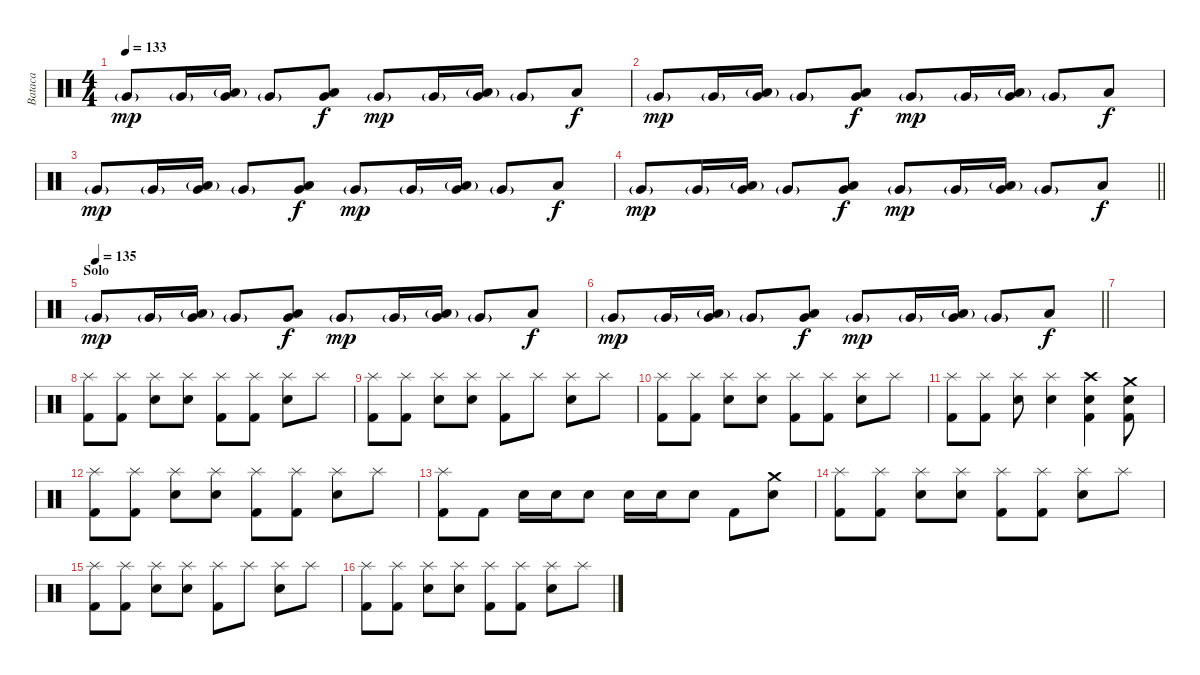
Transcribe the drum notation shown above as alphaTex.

\track ("Bataca" "Bataca") {instrument percussion}
\staff {score}
\articulation defaults
\ts (4 4)
\tempo 133
\clef neutral
\ks c "Very Low Tom (hit)"{g}.8{dy mp} "Very Low Tom (hit)"{g}.16
("Low Floor Tom (hit)"{g} "Very Low Tom (hit)").16 "Very Low Tom (hit)"{g}.8 ("Low Floor Tom (hit)" "Very Low Tom (hit)").8{dy f} "Very Low Tom (hit)"{g}.8{dy mp} "Very Low Tom (hit)"{g}.16 ("Low Floor Tom (hit)"{g} "Very Low Tom (hit)").16 "Very Low Tom (hit)"{g}.8 "Low Floor Tom (hit)".8{dy f} |
"Very Low Tom (hit)"{g}.8{dy mp} "Very Low Tom (hit)"{g}.16 ("Low Floor Tom (hit)"{g} "Very Low Tom (hit)").16 "Very Low Tom (hit)"{g}.8 ("Low Floor Tom (hit)" "Very Low Tom (hit)").8{dy f} "Very Low Tom (hit)"{g}.8{dy mp} "Very Low Tom (hit)"{g}.16 ("Low Floor Tom (hit)"{g} "Very Low Tom (hit)").16 "Very Low Tom (hit)"{g}.8 "Low Floor Tom (hit)".8{dy f} |
"Very Low Tom (hit)"{g}.8{dy mp} "Very Low Tom (hit)"{g}.16 ("Low Floor Tom (hit)"{g} "Very Low Tom (hit)").16 "Very Low Tom (hit)"{g}.8 ("Low Floor Tom (hit)" "Very Low Tom (hit)").8{dy f} "Very Low Tom (hit)"{g}.8{dy mp} "Very Low Tom (hit)"{g}.16 ("Low Floor Tom (hit)"{g} "Very Low Tom (hit)").16 "Very Low Tom (hit)"{g}.8 "Low Floor Tom (hit)".8{dy f} |
\barLineRight lightlight "Very Low Tom (hit)"{g}.8{dy mp} "Very Low Tom (hit)"{g}.16
("Low Floor Tom (hit)"{g} "Very Low Tom (hit)").16 "Very Low Tom (hit)"{g}.8 ("Low Floor Tom (hit)" "Very Low Tom (hit)").8{dy f} "Very Low Tom (hit)"{g}.8{dy mp} "Very Low Tom (hit)"{g}.16 ("Low Floor Tom (hit)"{g} "Very Low Tom (hit)").16 "Very Low Tom (hit)"{g}.8 "Low Floor Tom (hit)".8{dy f} |
\section ("" "Solo")
\tempo (135)
"Very Low Tom (hit)"{g}.8{dy mp} "Very Low Tom (hit)"{g}.16 ("Low Floor Tom (hit)"{g} "Very Low Tom (hit)").16 "Very Low Tom (hit)"{g}.8 ("Low Floor Tom (hit)" "Very Low Tom (hit)").8{dy f} "Very Low Tom (hit)"{g}.8{dy mp} "Very Low Tom (hit)"{g}.16 ("Low Floor Tom (hit)"{g} "Very Low Tom (hit)").16 "Very Low Tom (hit)"{g}.8 "Low Floor Tom (hit)".8{dy f} |
\barLineRight lightlight "Very Low Tom (hit)"{g}.8{dy mp} "Very Low Tom (hit)"{g}.16
("Low Floor Tom (hit)"{g} "Very Low Tom (hit)").16 "Very Low Tom (hit)"{g}.8 ("Low Floor Tom (hit)" "Very Low Tom (hit)").8{dy f} "Very Low Tom (hit)"{g}.8{dy mp} "Very Low Tom (hit)"{g}.16 ("Low Floor Tom (hit)"{g} "Very Low Tom (hit)").16 "Very Low Tom (hit)"{g}.8 "Low Floor Tom (hit)".8{dy f} |
|
("Splash (hit)" "Kick (hit) 2").8 ("Splash (hit)" "Kick (hit) 2").8 ("Splash (hit)" "Electric Snare (hit)").8 ("Splash (hit)" "Electric Snare (hit)").8 ("Splash (hit)" "Kick (hit) 2").8 ("Splash (hit)" "Kick (hit) 2").8 ("Splash (hit)" "Electric Snare (hit)").8 "Splash (hit)".8 |
("Splash (hit)" "Kick (hit) 2").8 ("Splash (hit)" "Kick (hit) 2").8 ("Splash (hit)" "Electric Snare (hit)").8 ("Splash (hit)" "Electric Snare (hit)").8 ("Splash (hit)" "Kick (hit) 2").8 "Splash (hit)".8 ("Splash (hit)" "Electric Snare (hit)").8 "Splash (hit)".8 |
("Splash (hit)" "Kick (hit) 2").8 ("Splash (hit)" "Kick (hit) 2").8 ("Splash (hit)" "Electric Snare (hit)").8 ("Splash (hit)" "Electric Snare (hit)").8 ("Splash (hit)" "Kick (hit) 2").8 ("Splash (hit)" "Kick (hit) 2").8 ("Splash (hit)" "Electric Snare (hit)").8 "Splash (hit)".8 |
("Splash (hit)" "Kick (hit) 2").8 ("Splash (hit)" "Kick (hit) 2").8 ("Splash (hit)" "Electric Snare (hit)").8 ("Splash (hit)" "Electric Snare (hit)").4 ("Crash high (hit)" "Electric Snare (hit)" "Kick (hit) 2").4 ("Crash medium (hit)" "Electric Snare (hit)" "Kick (hit) 2").8 |
("Splash (hit)" "Kick (hit) 2").8 ("Splash (hit)" "Kick (hit) 2").8 ("Splash (hit)" "Electric Snare (hit)").8 ("Splash (hit)" "Electric Snare (hit)").8 ("Splash (hit)" "Kick (hit) 2").8 ("Splash (hit)" "Kick (hit) 2").8 ("Splash (hit)" "Electric Snare (hit)").8 "Splash (hit)".8 |
("Splash (hit)" "Kick (hit) 2").8 "Kick (hit) 2".8 "Electric Snare (hit)".16 "Electric Snare (hit)".16 "Electric Snare (hit)".8 "Electric Snare (hit)".16 "Electric Snare (hit)".16 "Electric Snare (hit)".8 "Kick (hit) 2".8 ("Crash medium (hit)" "Electric Snare (hit)").8 |
("Splash (hit)" "Kick (hit) 2").8 ("Splash (hit)" "Kick (hit) 2").8 ("Splash (hit)" "Electric Snare (hit)").8 ("Splash (hit)" "Electric Snare (hit)").8 ("Splash (hit)" "Kick (hit) 2").8 ("Splash (hit)" "Kick (hit) 2").8 ("Splash (hit)" "Electric Snare (hit)").8 "Splash (hit)".8 |
("Splash (hit)" "Kick (hit) 2").8 ("Splash (hit)" "Kick (hit) 2").8 ("Splash (hit)" "Electric Snare (hit)").8 ("Splash (hit)" "Electric Snare (hit)").8 ("Splash (hit)" "Kick (hit) 2").8 "Splash (hit)".8 ("Splash (hit)" "Electric Snare (hit)").8 "Splash (hit)".8 |
("Splash (hit)" "Kick (hit) 2").8 ("Splash (hit)" "Kick (hit) 2").8 ("Splash (hit)" "Electric Snare (hit)").8 ("Splash (hit)" "Electric Snare (hit)").8 ("Splash (hit)" "Kick (hit) 2").8 ("Splash (hit)" "Kick (hit) 2").8 ("Splash (hit)" "Electric Snare (hit)").8 "Splash (hit)".8
